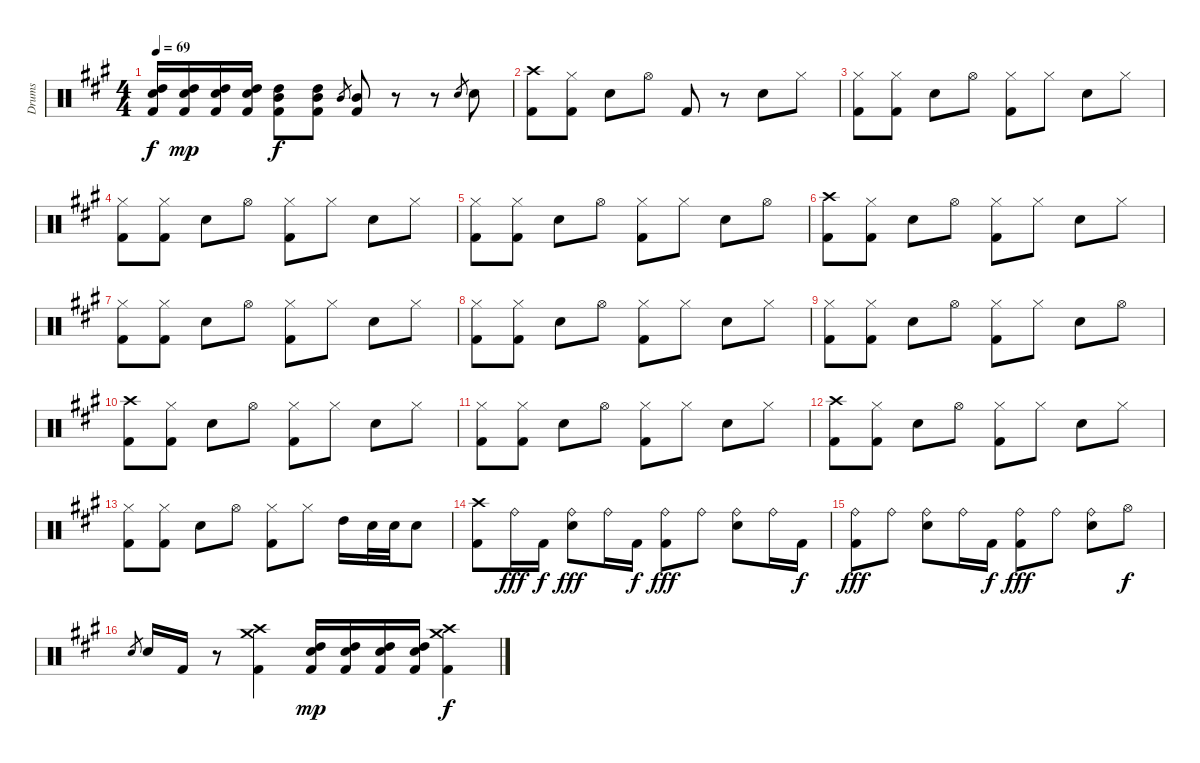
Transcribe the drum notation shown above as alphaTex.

\track ("Drums" "Drums") {instrument percussion}
\staff {score}
\articulation defaults
\ts (4 4)
\tempo 69
\clef neutral
\ks f#minor
("High Tom (hit)" "Snare (hit) 2" "Kick (hit) 2").16{dy f} ("High Tom (hit)" "Snare (hit) 2" "Kick (hit) 2").16{dy mp} ("High Tom (hit)" "Snare (hit) 2" "Kick (hit) 2").16 ("High Tom (hit)" "Snare (hit) 2" "Kick (hit) 2").16 ("High Tom (hit)" "Mid Tom (hit)" "Kick (hit) 2").8{dy f} ("High Tom (hit)" "Mid Tom (hit)" "Kick (hit) 2").8 "Mid Tom (hit)".8{gr} ("Mid Tom (hit)" "Kick (hit) 2").8 r.8 r.8 "Snare (hit) 2".8{gr} "Snare (hit) 2".8 |
("Crash high (hit)" "Kick (hit) 2").8 ("Hi-Hat (closed)" "Kick (hit) 2").8 "Snare (hit) 2".8 "Hi-Hat (open)".8 "Kick (hit) 2".8 r.8 "Snare (hit) 2".8 "Hi-Hat (closed)".8 |
("Hi-Hat (closed)" "Kick (hit) 2").8 ("Hi-Hat (closed)" "Kick (hit) 2").8 "Snare (hit) 2".8 "Hi-Hat (open)".8 ("Hi-Hat (closed)" "Kick (hit) 2").8 "Hi-Hat (closed)".8 "Snare (hit) 2".8 "Hi-Hat (closed)".8 |
("Hi-Hat (closed)" "Kick (hit) 2").8 ("Hi-Hat (closed)" "Kick (hit) 2").8 "Snare (hit) 2".8 "Hi-Hat (open)".8 ("Hi-Hat (closed)" "Kick (hit) 2").8 "Hi-Hat (closed)".8 "Snare (hit) 2".8 "Hi-Hat (closed)".8 |
("Hi-Hat (closed)" "Kick (hit) 2").8 ("Hi-Hat (closed)" "Kick (hit) 2").8 "Snare (hit) 2".8 "Hi-Hat (open)".8 ("Hi-Hat (closed)" "Kick (hit) 2").8 "Hi-Hat (closed)".8 "Snare (hit) 2".8 "Hi-Hat (open)".8 |
("Crash high (hit)" "Kick (hit) 2").8 ("Hi-Hat (closed)" "Kick (hit) 2").8 "Snare (hit) 2".8 "Hi-Hat (open)".8 ("Hi-Hat (closed)" "Kick (hit) 2").8 "Hi-Hat (closed)".8 "Snare (hit) 2".8 "Hi-Hat (closed)".8 |
("Hi-Hat (closed)" "Kick (hit) 2").8 ("Hi-Hat (closed)" "Kick (hit) 2").8 "Snare (hit) 2".8 "Hi-Hat (open)".8 ("Hi-Hat (closed)" "Kick (hit) 2").8 "Hi-Hat (closed)".8 "Snare (hit) 2".8 "Hi-Hat (closed)".8 |
("Hi-Hat (closed)" "Kick (hit) 2").8 ("Hi-Hat (closed)" "Kick (hit) 2").8 "Snare (hit) 2".8 "Hi-Hat (open)".8 ("Hi-Hat (closed)" "Kick (hit) 2").8 "Hi-Hat (closed)".8 "Snare (hit) 2".8 "Hi-Hat (closed)".8 |
("Hi-Hat (closed)" "Kick (hit) 2").8 ("Hi-Hat (closed)" "Kick (hit) 2").8 "Snare (hit) 2".8 "Hi-Hat (open)".8 ("Hi-Hat (closed)" "Kick (hit) 2").8 "Hi-Hat (closed)".8 "Snare (hit) 2".8 "Hi-Hat (open)".8 |
("Crash high (hit)" "Kick (hit) 2").8 ("Hi-Hat (closed)" "Kick (hit) 2").8 "Snare (hit) 2".8 "Hi-Hat (open)".8 ("Hi-Hat (closed)" "Kick (hit) 2").8 "Hi-Hat (closed)".8 "Snare (hit) 2".8 "Hi-Hat (closed)".8 |
("Hi-Hat (closed)" "Kick (hit) 2").8 ("Hi-Hat (closed)" "Kick (hit) 2").8 "Snare (hit) 2".8 "Hi-Hat (open)".8 ("Hi-Hat (closed)" "Kick (hit) 2").8 "Hi-Hat (closed)".8 "Snare (hit) 2".8 "Hi-Hat (closed)".8 |
("Crash high (hit)" "Kick (hit) 2").8 ("Hi-Hat (closed)" "Kick (hit) 2").8 "Snare (hit) 2".8 "Hi-Hat (open)".8 ("Hi-Hat (closed)" "Kick (hit) 2").8 "Hi-Hat (closed)".8 "Snare (hit) 2".8 "Hi-Hat (closed)".8 |
("Hi-Hat (closed)" "Kick (hit) 2").8 ("Hi-Hat (closed)" "Kick (hit) 2").8 "Snare (hit) 2".8 "Hi-Hat (open)".8 ("Hi-Hat (closed)" "Kick (hit) 2").8 "Hi-Hat (closed)".8 "High Tom (hit)".16 "Snare (hit) 2".32 "Snare (hit) 2".32 "Snare (hit) 2".8 |
("Crash high (hit)" "Kick (hit) 2").8 "Ride (bell)".16{dy fff} "Kick (hit) 2".16{dy f} ("Ride (bell)" "Snare (hit) 2").8{dy fff} "Ride (bell)".16 "Kick (hit) 2".16{dy f} ("Ride (bell)" "Kick (hit) 2").8{dy fff} "Ride (bell)".8 ("Ride (bell)" "Snare (hit) 2").8 "Ride (bell)".16 "Kick (hit) 2".16{dy f} |
("Ride (bell)" "Kick (hit) 2").8{dy fff} "Ride (bell)".8 ("Ride (bell)" "Snare (hit) 2").8 "Ride (bell)".16 "Kick (hit) 2".16{dy f} ("Ride (bell)" "Kick (hit) 2").8{dy fff} "Ride (bell)".8 ("Ride (bell)" "Snare (hit) 2").8 "Hi-Hat (open)".8{dy f} |
"Snare (hit) 2".8{gr} "Snare (hit) 2".16 "Kick (hit) 2".16 r.8 ("Crash high (hit)" "Crash medium (hit)" "Kick (hit) 2").4 ("High Tom (hit)" "Snare (hit) 2" "Kick (hit) 2").16{dy mp} ("High Tom (hit)" "Snare (hit) 2" "Kick (hit) 2").16 ("High Tom (hit)" "Snare (hit) 2" "Kick (hit) 2").16 ("High Tom (hit)" "Snare (hit) 2" "Kick (hit) 2").16 ("Crash high (hit)" "Crash medium (hit)" "Kick (hit) 2").4{dy f}
